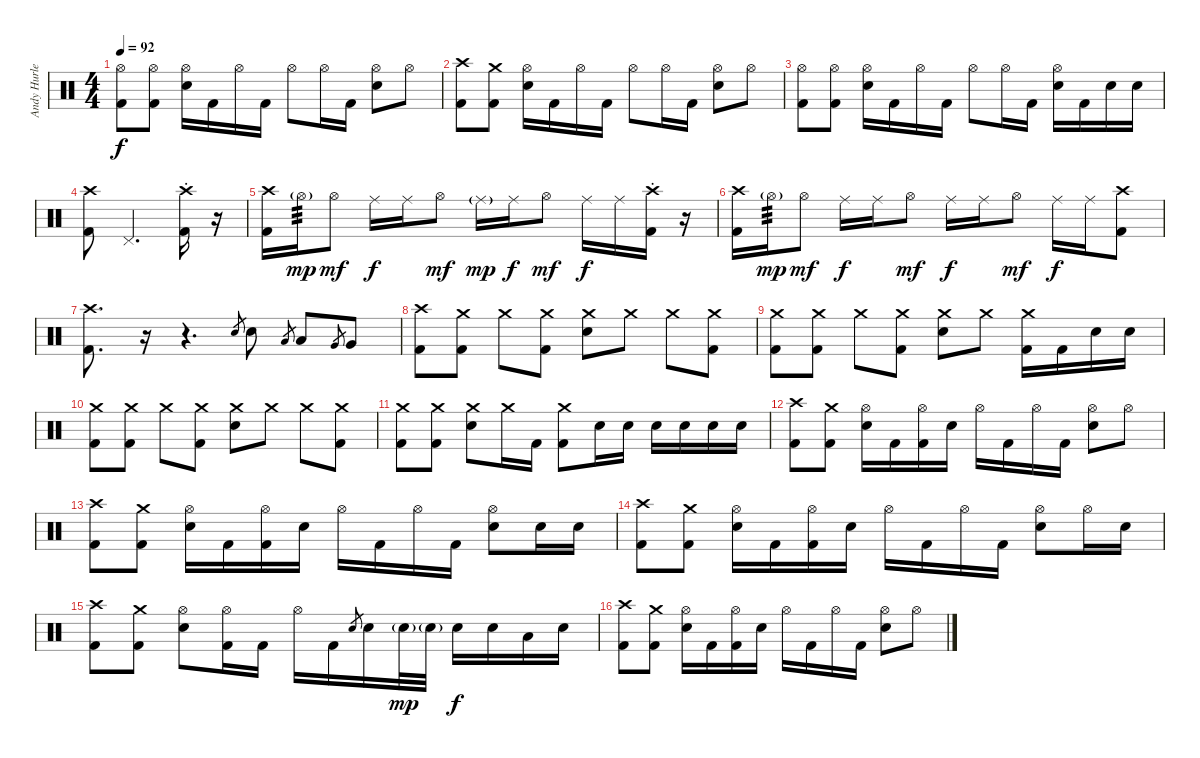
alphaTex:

\track ("Andy Hurley" "Andy Hurle") {instrument percussion}
\staff {score}
\articulation defaults
\ts (4 4)
\tempo 92
\clef neutral
\ks c
("Hi-Hat (open)" "Kick (hit) 2").8{dy f} ("Hi-Hat (open)" "Kick (hit) 2").8 ("Hi-Hat (open)" "Snare (hit) 2").16 "Kick (hit) 2".16 "Hi-Hat (open)".16 "Kick (hit) 2".16 "Hi-Hat (open)".8 "Hi-Hat (open)".16 "Kick (hit) 2".16 ("Hi-Hat (open)" "Snare (hit) 2").8 "Hi-Hat (open)".8 |
("Crash high (hit)" "Kick (hit) 2").8 ("Crash medium (hit)" "Kick (hit) 2").8 ("Hi-Hat (open)" "Snare (hit) 2").16 "Kick (hit) 2".16 "Hi-Hat (open)".16 "Kick (hit) 2".16 "Hi-Hat (open)".8 "Hi-Hat (open)".16 "Kick (hit) 2".16 ("Hi-Hat (open)" "Snare (hit) 2").8 "Hi-Hat (open)".8 |
("Hi-Hat (open)" "Kick (hit) 2").8 ("Hi-Hat (open)" "Kick (hit) 2").8 ("Hi-Hat (open)" "Snare (hit) 2").16 "Kick (hit) 2".16 "Hi-Hat (open)".16 "Kick (hit) 2".16 "Hi-Hat (open)".8 "Hi-Hat (open)".16 "Kick (hit) 2".16 ("Hi-Hat (open)" "Snare (hit) 2").16 "Kick (hit) 2".16 "Snare (hit) 2".16 "Snare (hit) 2".16 |
("Crash high (hit)" "Kick (hit) 2").8 "Pedal Hi-Hat (hit)".2{d} ("Crash high (hit)"{st} "Kick (hit) 2").16 r.16{volume 0} |
("Crash high (hit)" "Kick (hit) 2").16{volume 16} "Hi-Hat (open)"{g}.16{tp 3 dy mp} "Hi-Hat (open)".8{dy mf} "Ride (middle)".16{dy f} "Ride (middle)".16 "Hi-Hat (open)".8{dy mf} "Ride (middle)"{g}.16{dy mp} "Ride (middle)".16{dy f} "Hi-Hat (open)".8{dy mf} "Ride (middle)".16{dy f} "Ride (middle)".16 ("Crash high (hit)"{st} "Kick (hit) 2").16 r.16{volume 0} |
("Crash high (hit)" "Kick (hit) 2").16{volume 16} "Hi-Hat (open)"{g}.16{tp 3 dy mp} "Hi-Hat (open)".8{dy mf} "Ride (middle)".16{dy f} "Ride (middle)".16 "Hi-Hat (open)".8{dy mf} "Ride (middle)".16{dy f} "Ride (middle)".16 "Hi-Hat (open)".8{dy mf} "Ride (middle)".16{dy f} "Ride (middle)".16 ("Crash high (hit)" "Kick (hit) 2").8 |
("Crash high (hit)" "Kick (hit) 2").8{d} r.16{volume 0} r.4{d} "Snare (hit) 2".8{gr} "Snare (hit) 2".8{volume 16} "Low Tom (hit)".8{gr} "Low Tom (hit)".8 "Very Low Tom (hit)".8{gr} "Very Low Tom (hit)".8 |
("Crash high (hit)" "Kick (hit) 2").8 ("Crash medium (hit)" "Kick (hit) 2").8 "Crash medium (hit)".8 ("Crash medium (hit)" "Kick (hit) 2").8 ("Crash medium (hit)" "Snare (hit) 2").8 "Crash medium (hit)".8 "Crash medium (hit)".8 ("Crash medium (hit)" "Kick (hit) 2").8 |
("Crash medium (hit)" "Kick (hit) 2").8 ("Crash medium (hit)" "Kick (hit) 2").8 "Crash medium (hit)".8 ("Crash medium (hit)" "Kick (hit) 2").8 ("Crash medium (hit)" "Snare (hit) 2").8 "Crash medium (hit)".8 ("Crash medium (hit)" "Kick (hit) 2").16 "Kick (hit) 2".16 "Snare (hit) 2".16 "Snare (hit) 2".16 |
("Crash medium (hit)" "Kick (hit) 2").8 ("Crash medium (hit)" "Kick (hit) 2").8 "Crash medium (hit)".8 ("Crash medium (hit)" "Kick (hit) 2").8 ("Crash medium (hit)" "Snare (hit) 2").8 "Crash medium (hit)".8 "Crash medium (hit)".8 ("Crash medium (hit)" "Kick (hit) 2").8 |
("Crash medium (hit)" "Kick (hit) 2").8 ("Crash medium (hit)" "Kick (hit) 2").8 ("Crash medium (hit)" "Snare (hit) 2").8 "Crash medium (hit)".16 "Kick (hit) 2".16 ("Crash medium (hit)" "Kick (hit) 2").8 "Snare (hit) 2".16 "Snare (hit) 2".16 "Snare (hit) 2".16 "Snare (hit) 2".16 "Snare (hit) 2".16 "Snare (hit) 2".16 |
("Crash high (hit)" "Kick (hit) 2").8 ("Crash medium (hit)" "Kick (hit) 2").8 ("Hi-Hat (open)" "Snare (hit) 2").16 "Kick (hit) 2".16 ("Hi-Hat (open)" "Kick (hit) 2").16 "Snare (hit) 2".16 "Hi-Hat (open)".16 "Kick (hit) 2".16 "Hi-Hat (open)".16 "Kick (hit) 2".16 ("Hi-Hat (open)" "Snare (hit) 2").8 "Hi-Hat (open)".8 |
("Crash high (hit)" "Kick (hit) 2").8 ("Crash medium (hit)" "Kick (hit) 2").8 ("Hi-Hat (open)" "Snare (hit) 2").16 "Kick (hit) 2".16 ("Hi-Hat (open)" "Kick (hit) 2").16 "Snare (hit) 2".16 "Hi-Hat (open)".16 "Kick (hit) 2".16 "Hi-Hat (open)".16 "Kick (hit) 2".16 ("Hi-Hat (open)" "Snare (hit) 2").8 "Snare (hit) 2".16 "Snare (hit) 2".16 |
("Crash high (hit)" "Kick (hit) 2").8 ("Crash medium (hit)" "Kick (hit) 2").8 ("Hi-Hat (open)" "Snare (hit) 2").16 "Kick (hit) 2".16 ("Hi-Hat (open)" "Kick (hit) 2").16 "Snare (hit) 2".16 "Hi-Hat (open)".16 "Kick (hit) 2".16 "Hi-Hat (open)".16 "Kick (hit) 2".16 ("Hi-Hat (open)" "Snare (hit) 2").8 "Hi-Hat (open)".16 "Snare (hit) 2".16 |
("Crash high (hit)" "Kick (hit) 2").8 ("Crash medium (hit)" "Kick (hit) 2").8 ("Hi-Hat (open)" "Snare (hit) 2").8 ("Hi-Hat (open)" "Kick (hit) 2").16 "Kick (hit) 2".16 "Hi-Hat (open)".16 "Kick (hit) 2".16 "Snare (hit) 2".8{gr} "Snare (hit) 2".16 "Snare (hit) 2"{g}.32{dy mp} "Snare (hit) 2"{g}.32 "Snare (hit) 2".16{dy f} "Snare (hit) 2".16 "Low Tom (hit)".16 "Snare (hit) 2".16 |
("Crash high (hit)" "Kick (hit) 2").8 ("Crash medium (hit)" "Kick (hit) 2").8 ("Hi-Hat (open)" "Snare (hit) 2").16 "Kick (hit) 2".16 ("Hi-Hat (open)" "Kick (hit) 2").16 "Snare (hit) 2".16 "Hi-Hat (open)".16 "Kick (hit) 2".16 "Hi-Hat (open)".16 "Kick (hit) 2".16 ("Hi-Hat (open)" "Snare (hit) 2").8 "Hi-Hat (open)".8
